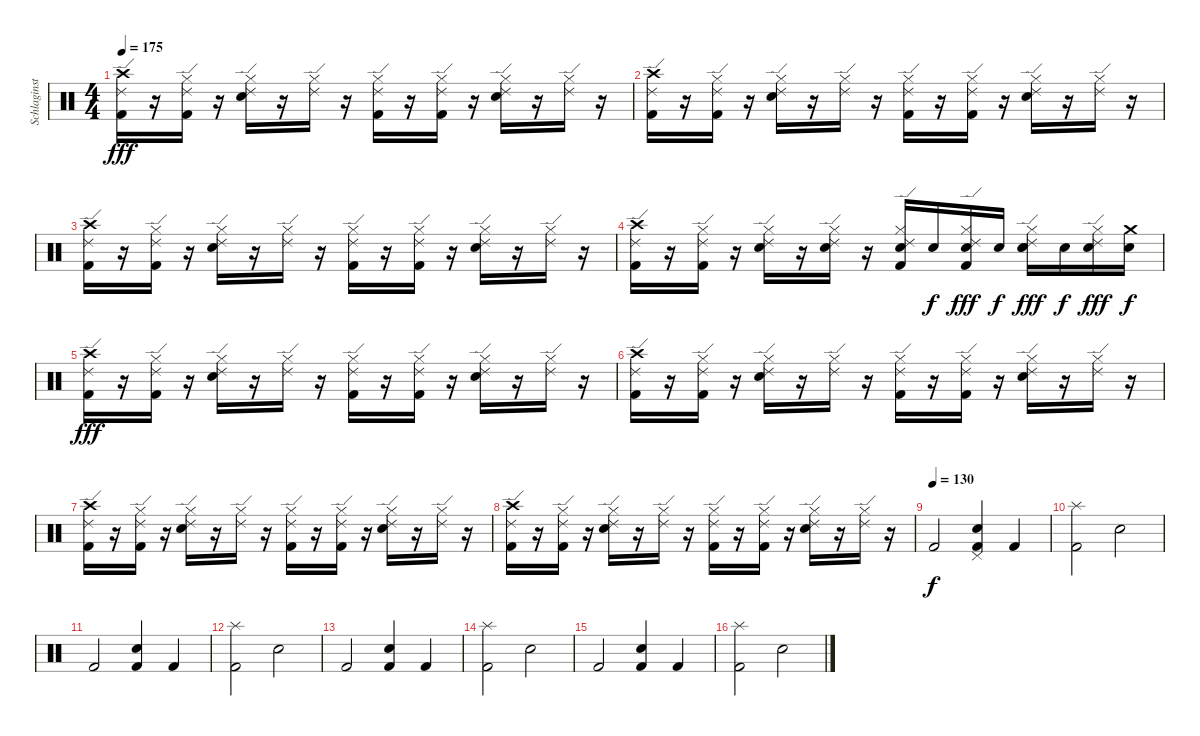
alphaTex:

\track ("Schlaginstrumente - Auswahl" "Schlaginst") {instrument percussion}
\staff {score}
\articulation defaults
\ts (4 4)
\tempo 175
\clef neutral
\ks c
("Kick (hit) 2" "Crash high (hit)" "Ride (edge) 2").16{dy fff} r.16 ("Hi-Hat (closed)" "Kick (hit) 2" "Ride (edge) 2").16 r.16 ("Snare (hit) 2" "Hi-Hat (closed)" "Ride (edge) 2").16 r.16 ("Hi-Hat (closed)" "Ride (edge) 2").16 r.16 ("Kick (hit) 2" "Hi-Hat (closed)" "Ride (edge) 2").16 r.16 ("Kick (hit) 2" "Hi-Hat (closed)" "Ride (edge) 2").16 r.16 ("Snare (hit) 2" "Hi-Hat (closed)" "Ride (edge) 2").16 r.16 ("Hi-Hat (closed)" "Ride (edge) 2").16 r.16 |
("Kick (hit) 2" "Crash high (hit)" "Ride (edge) 2").16 r.16 ("Hi-Hat (closed)" "Kick (hit) 2" "Ride (edge) 2").16 r.16 ("Snare (hit) 2" "Hi-Hat (closed)" "Ride (edge) 2").16 r.16 ("Hi-Hat (closed)" "Ride (edge) 2").16 r.16 ("Kick (hit) 2" "Hi-Hat (closed)" "Ride (edge) 2").16 r.16 ("Kick (hit) 2" "Hi-Hat (closed)" "Ride (edge) 2").16 r.16 ("Snare (hit) 2" "Hi-Hat (closed)" "Ride (edge) 2").16 r.16 ("Hi-Hat (closed)" "Ride (edge) 2").16 r.16 |
("Kick (hit) 2" "Crash high (hit)" "Ride (edge) 2").16 r.16 ("Hi-Hat (closed)" "Kick (hit) 2" "Ride (edge) 2").16 r.16 ("Snare (hit) 2" "Hi-Hat (closed)" "Ride (edge) 2").16 r.16 ("Hi-Hat (closed)" "Ride (edge) 2").16 r.16 ("Kick (hit) 2" "Hi-Hat (closed)" "Ride (edge) 2").16 r.16 ("Kick (hit) 2" "Hi-Hat (closed)" "Ride (edge) 2").16 r.16 ("Snare (hit) 2" "Hi-Hat (closed)" "Ride (edge) 2").16 r.16 ("Hi-Hat (closed)" "Ride (edge) 2").16 r.16 |
("Kick (hit) 2" "Crash high (hit)" "Ride (edge) 2").16 r.16 ("Hi-Hat (closed)" "Kick (hit) 2" "Ride (edge) 2").16 r.16 ("Snare (hit) 2" "Hi-Hat (closed)" "Ride (edge) 2").16 r.16 ("Hi-Hat (closed)" "Snare (hit) 2" "Ride (edge) 2").16 r.16 ("Kick (hit) 2" "Hi-Hat (closed)" "Snare (hit) 2" "Ride (edge) 2").16 "Snare (hit) 2".16{dy f} ("Kick (hit) 2" "Hi-Hat (closed)" "Snare (hit) 2" "Ride (edge) 2").16{dy fff} "Snare (hit) 2".16{dy f} ("Snare (hit) 2" "Hi-Hat (closed)" "Snare (hit) 2" "Ride (edge) 2").16{dy fff} "Snare (hit) 2".16{dy f} ("Hi-Hat (closed)" "Snare (hit) 2" "Ride (edge) 2").16{dy fff} ("Crash medium (hit)" "Snare (hit) 2").16{dy f} |
("Kick (hit) 2" "Crash high (hit)" "Ride (edge) 2").16{dy fff} r.16 ("Hi-Hat (closed)" "Kick (hit) 2" "Ride (edge) 2").16 r.16 ("Snare (hit) 2" "Hi-Hat (closed)" "Ride (edge) 2").16 r.16 ("Hi-Hat (closed)" "Ride (edge) 2").16 r.16 ("Kick (hit) 2" "Hi-Hat (closed)" "Ride (edge) 2").16 r.16 ("Kick (hit) 2" "Hi-Hat (closed)" "Ride (edge) 2").16 r.16 ("Snare (hit) 2" "Hi-Hat (closed)" "Ride (edge) 2").16 r.16 ("Hi-Hat (closed)" "Ride (edge) 2").16 r.16 |
("Kick (hit) 2" "Crash high (hit)" "Ride (edge) 2").16 r.16 ("Hi-Hat (closed)" "Kick (hit) 2" "Ride (edge) 2").16 r.16 ("Snare (hit) 2" "Hi-Hat (closed)" "Ride (edge) 2").16 r.16 ("Hi-Hat (closed)" "Ride (edge) 2").16 r.16 ("Kick (hit) 2" "Hi-Hat (closed)" "Ride (edge) 2").16 r.16 ("Kick (hit) 2" "Hi-Hat (closed)" "Ride (edge) 2").16 r.16 ("Snare (hit) 2" "Hi-Hat (closed)" "Ride (edge) 2").16 r.16 ("Hi-Hat (closed)" "Ride (edge) 2").16 r.16 |
("Kick (hit) 2" "Crash high (hit)" "Ride (edge) 2").16 r.16 ("Hi-Hat (closed)" "Kick (hit) 2" "Ride (edge) 2").16 r.16 ("Snare (hit) 2" "Hi-Hat (closed)" "Ride (edge) 2").16 r.16 ("Hi-Hat (closed)" "Ride (edge) 2").16 r.16 ("Kick (hit) 2" "Hi-Hat (closed)" "Ride (edge) 2").16 r.16 ("Kick (hit) 2" "Hi-Hat (closed)" "Ride (edge) 2").16 r.16 ("Snare (hit) 2" "Hi-Hat (closed)" "Ride (edge) 2").16 r.16 ("Hi-Hat (closed)" "Ride (edge) 2").16 r.16 |
("Kick (hit) 2" "Crash high (hit)" "Ride (edge) 2").16 r.16 ("Hi-Hat (closed)" "Kick (hit) 2" "Ride (edge) 2").16 r.16 ("Snare (hit) 2" "Hi-Hat (closed)" "Ride (edge) 2").16 r.16 ("Hi-Hat (closed)" "Ride (edge) 2").16 r.16 ("Kick (hit) 2" "Hi-Hat (closed)" "Ride (edge) 2").16 r.16 ("Kick (hit) 2" "Hi-Hat (closed)" "Ride (edge) 2").16 r.16 ("Snare (hit) 2" "Hi-Hat (closed)" "Ride (edge) 2").16 r.16 ("Hi-Hat (closed)" "Ride (edge) 2").16 r.16 |
\tempo (130)
"Kick (hit) 2".2{dy f} ("Pedal Hi-Hat (hit)" "Kick (hit) 2" "Snare (hit) 2").4 "Kick (hit) 2".4 |
("Splash (hit)" "Kick (hit) 2").2 "Snare (hit) 2".2 |
"Kick (hit) 2".2 ("Kick (hit) 2" "Snare (hit) 2").4 "Kick (hit) 2".4 |
("Splash (hit)" "Kick (hit) 2").2 "Snare (hit) 2".2 |
"Kick (hit) 2".2 ("Kick (hit) 2" "Snare (hit) 2").4 "Kick (hit) 2".4 |
("Splash (hit)" "Kick (hit) 2").2 "Snare (hit) 2".2 |
"Kick (hit) 2".2 ("Kick (hit) 2" "Snare (hit) 2").4 "Kick (hit) 2".4 |
("Splash (hit)" "Kick (hit) 2").2 "Snare (hit) 2".2
